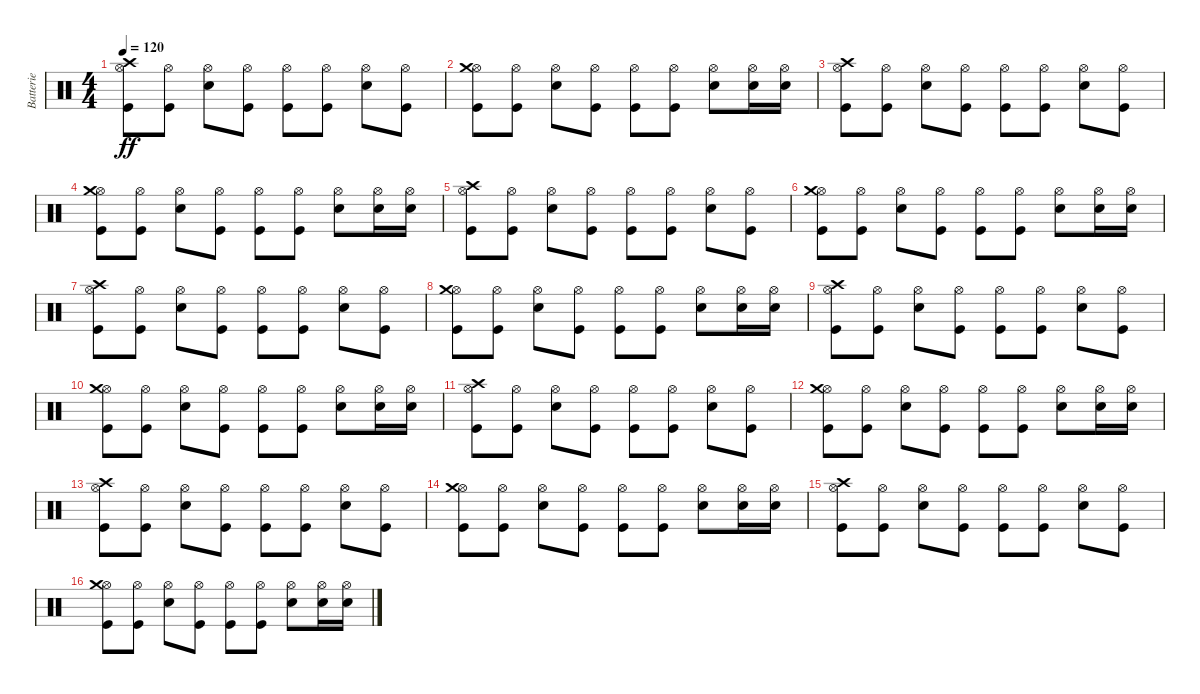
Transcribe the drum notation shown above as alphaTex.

\track ("Batterie" "Batterie") {instrument percussion}
\staff {score}
\articulation defaults
\ts (4 4)
\tempo 120
\clef neutral
\ks c
("Kick (hit)" "Hi-Hat (open)" "Crash high (hit)").8{dy ff} ("Kick (hit)" "Hi-Hat (open)").8 ("Electric Snare (hit)" "Hi-Hat (open)").8 ("Kick (hit)" "Hi-Hat (open)").8 ("Kick (hit)" "Hi-Hat (open)").8 ("Kick (hit)" "Hi-Hat (open)").8 ("Electric Snare (hit)" "Hi-Hat (open)").8 ("Kick (hit)" "Hi-Hat (open)").8 |
("Kick (hit)" "Hi-Hat (open)" "Crash medium (hit)").8 ("Kick (hit)" "Hi-Hat (open)").8 ("Electric Snare (hit)" "Hi-Hat (open)").8 ("Kick (hit)" "Hi-Hat (open)").8 ("Kick (hit)" "Hi-Hat (open)").8 ("Kick (hit)" "Hi-Hat (open)").8 ("Electric Snare (hit)" "Hi-Hat (open)").8 ("Electric Snare (hit)" "Hi-Hat (open)").16 ("Electric Snare (hit)" "Hi-Hat (open)").16 |
("Kick (hit)" "Hi-Hat (open)" "Crash high (hit)").8 ("Kick (hit)" "Hi-Hat (open)").8 ("Electric Snare (hit)" "Hi-Hat (open)").8 ("Kick (hit)" "Hi-Hat (open)").8 ("Kick (hit)" "Hi-Hat (open)").8 ("Kick (hit)" "Hi-Hat (open)").8 ("Electric Snare (hit)" "Hi-Hat (open)").8 ("Kick (hit)" "Hi-Hat (open)").8 |
("Kick (hit)" "Hi-Hat (open)" "Crash medium (hit)").8 ("Kick (hit)" "Hi-Hat (open)").8 ("Electric Snare (hit)" "Hi-Hat (open)").8 ("Kick (hit)" "Hi-Hat (open)").8 ("Kick (hit)" "Hi-Hat (open)").8 ("Kick (hit)" "Hi-Hat (open)").8 ("Electric Snare (hit)" "Hi-Hat (open)").8 ("Electric Snare (hit)" "Hi-Hat (open)").16 ("Electric Snare (hit)" "Hi-Hat (open)").16 |
("Kick (hit)" "Hi-Hat (open)" "Crash high (hit)").8 ("Kick (hit)" "Hi-Hat (open)").8 ("Electric Snare (hit)" "Hi-Hat (open)").8 ("Kick (hit)" "Hi-Hat (open)").8 ("Kick (hit)" "Hi-Hat (open)").8 ("Kick (hit)" "Hi-Hat (open)").8 ("Electric Snare (hit)" "Hi-Hat (open)").8 ("Kick (hit)" "Hi-Hat (open)").8 |
("Kick (hit)" "Hi-Hat (open)" "Crash medium (hit)").8 ("Kick (hit)" "Hi-Hat (open)").8 ("Electric Snare (hit)" "Hi-Hat (open)").8 ("Kick (hit)" "Hi-Hat (open)").8 ("Kick (hit)" "Hi-Hat (open)").8 ("Kick (hit)" "Hi-Hat (open)").8 ("Electric Snare (hit)" "Hi-Hat (open)").8 ("Electric Snare (hit)" "Hi-Hat (open)").16 ("Electric Snare (hit)" "Hi-Hat (open)").16 |
("Kick (hit)" "Hi-Hat (open)" "Crash high (hit)").8 ("Kick (hit)" "Hi-Hat (open)").8 ("Electric Snare (hit)" "Hi-Hat (open)").8 ("Kick (hit)" "Hi-Hat (open)").8 ("Kick (hit)" "Hi-Hat (open)").8 ("Kick (hit)" "Hi-Hat (open)").8 ("Electric Snare (hit)" "Hi-Hat (open)").8 ("Kick (hit)" "Hi-Hat (open)").8 |
("Kick (hit)" "Hi-Hat (open)" "Crash medium (hit)").8 ("Kick (hit)" "Hi-Hat (open)").8 ("Electric Snare (hit)" "Hi-Hat (open)").8 ("Kick (hit)" "Hi-Hat (open)").8 ("Kick (hit)" "Hi-Hat (open)").8 ("Kick (hit)" "Hi-Hat (open)").8 ("Electric Snare (hit)" "Hi-Hat (open)").8 ("Electric Snare (hit)" "Hi-Hat (open)").16 ("Electric Snare (hit)" "Hi-Hat (open)").16 |
("Kick (hit)" "Hi-Hat (open)" "Crash high (hit)").8 ("Kick (hit)" "Hi-Hat (open)").8 ("Electric Snare (hit)" "Hi-Hat (open)").8 ("Kick (hit)" "Hi-Hat (open)").8 ("Kick (hit)" "Hi-Hat (open)").8 ("Kick (hit)" "Hi-Hat (open)").8 ("Electric Snare (hit)" "Hi-Hat (open)").8 ("Kick (hit)" "Hi-Hat (open)").8 |
("Kick (hit)" "Hi-Hat (open)" "Crash medium (hit)").8 ("Kick (hit)" "Hi-Hat (open)").8 ("Electric Snare (hit)" "Hi-Hat (open)").8 ("Kick (hit)" "Hi-Hat (open)").8 ("Kick (hit)" "Hi-Hat (open)").8 ("Kick (hit)" "Hi-Hat (open)").8 ("Electric Snare (hit)" "Hi-Hat (open)").8 ("Electric Snare (hit)" "Hi-Hat (open)").16 ("Electric Snare (hit)" "Hi-Hat (open)").16 |
("Kick (hit)" "Hi-Hat (open)" "Crash high (hit)").8 ("Kick (hit)" "Hi-Hat (open)").8 ("Electric Snare (hit)" "Hi-Hat (open)").8 ("Kick (hit)" "Hi-Hat (open)").8 ("Kick (hit)" "Hi-Hat (open)").8 ("Kick (hit)" "Hi-Hat (open)").8 ("Electric Snare (hit)" "Hi-Hat (open)").8 ("Kick (hit)" "Hi-Hat (open)").8 |
("Kick (hit)" "Hi-Hat (open)" "Crash medium (hit)").8 ("Kick (hit)" "Hi-Hat (open)").8 ("Electric Snare (hit)" "Hi-Hat (open)").8 ("Kick (hit)" "Hi-Hat (open)").8 ("Kick (hit)" "Hi-Hat (open)").8 ("Kick (hit)" "Hi-Hat (open)").8 ("Electric Snare (hit)" "Hi-Hat (open)").8 ("Electric Snare (hit)" "Hi-Hat (open)").16 ("Electric Snare (hit)" "Hi-Hat (open)").16 |
("Kick (hit)" "Hi-Hat (open)" "Crash high (hit)").8 ("Kick (hit)" "Hi-Hat (open)").8 ("Electric Snare (hit)" "Hi-Hat (open)").8 ("Kick (hit)" "Hi-Hat (open)").8 ("Kick (hit)" "Hi-Hat (open)").8 ("Kick (hit)" "Hi-Hat (open)").8 ("Electric Snare (hit)" "Hi-Hat (open)").8 ("Kick (hit)" "Hi-Hat (open)").8 |
("Kick (hit)" "Hi-Hat (open)" "Crash medium (hit)").8 ("Kick (hit)" "Hi-Hat (open)").8 ("Electric Snare (hit)" "Hi-Hat (open)").8 ("Kick (hit)" "Hi-Hat (open)").8 ("Kick (hit)" "Hi-Hat (open)").8 ("Kick (hit)" "Hi-Hat (open)").8 ("Electric Snare (hit)" "Hi-Hat (open)").8 ("Electric Snare (hit)" "Hi-Hat (open)").16 ("Electric Snare (hit)" "Hi-Hat (open)").16 |
("Kick (hit)" "Hi-Hat (open)" "Crash high (hit)").8 ("Kick (hit)" "Hi-Hat (open)").8 ("Electric Snare (hit)" "Hi-Hat (open)").8 ("Kick (hit)" "Hi-Hat (open)").8 ("Kick (hit)" "Hi-Hat (open)").8 ("Kick (hit)" "Hi-Hat (open)").8 ("Electric Snare (hit)" "Hi-Hat (open)").8 ("Kick (hit)" "Hi-Hat (open)").8 |
("Kick (hit)" "Hi-Hat (open)" "Crash medium (hit)").8 ("Kick (hit)" "Hi-Hat (open)").8 ("Electric Snare (hit)" "Hi-Hat (open)").8 ("Kick (hit)" "Hi-Hat (open)").8 ("Kick (hit)" "Hi-Hat (open)").8 ("Kick (hit)" "Hi-Hat (open)").8 ("Electric Snare (hit)" "Hi-Hat (open)").8 ("Electric Snare (hit)" "Hi-Hat (open)").16 ("Electric Snare (hit)" "Hi-Hat (open)").16
